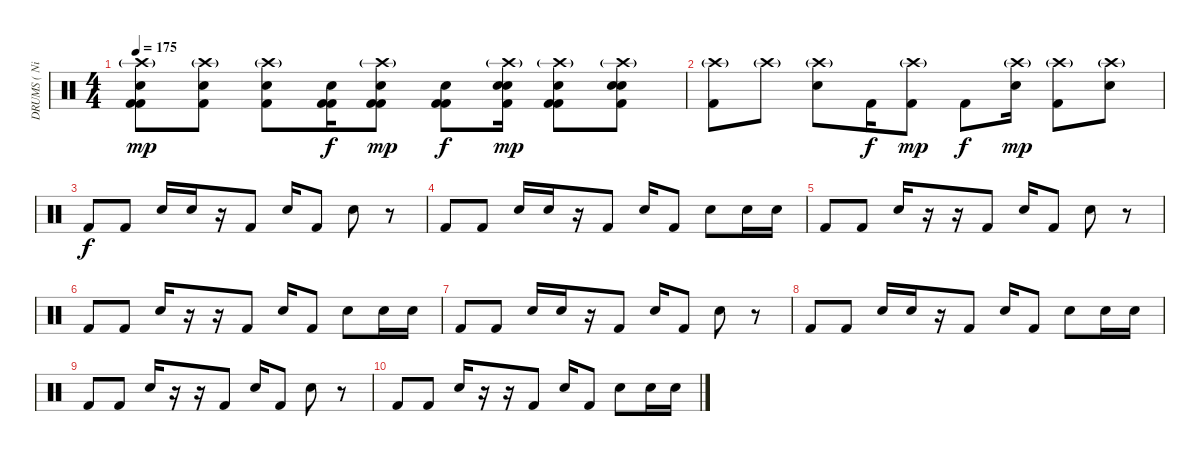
\track ("DRUMS ( Nick Oshiro )" "DRUMS ( Ni") {instrument percussion}
\staff {score}
\articulation defaults
\ts (4 4)
\tempo 175
\clef neutral
\ks c
("Kick (hit) 2" "Electric Snare (hit)" "Kick (hit) 2" "Crash high (hit)"{g}).8{dy mp} ("Kick (hit) 2" "Electric Snare (hit)" "Crash high (hit)"{g}).8 ("Kick (hit) 2" "Electric Snare (hit)" "Crash high (hit)"{g}).8 ("Kick (hit) 2" "Electric Snare (hit)" "Kick (hit) 2").16{dy f} ("Kick (hit) 2" "Electric Snare (hit)" "Kick (hit) 2" "Crash high (hit)"{g}).8{dy mp} ("Kick (hit) 2" "Electric Snare (hit)" "Kick (hit) 2").8{dy f} ("Kick (hit) 2" "Electric Snare (hit)" "Electric Snare (hit)" "Crash high (hit)"{g}).16{dy mp} ("Kick (hit) 2" "Electric Snare (hit)" "Kick (hit) 2" "Crash high (hit)"{g}).8 ("Kick (hit) 2" "Electric Snare (hit)" "Electric Snare (hit)" "Crash high (hit)"{g}).8 |
("Kick (hit) 2" "Crash high (hit)"{g}).8 "Crash high (hit)"{g}.8 ("Electric Snare (hit)" "Crash high (hit)"{g}).8 "Kick (hit) 2".16{dy f} ("Kick (hit) 2" "Crash high (hit)"{g}).8{dy mp} "Kick (hit) 2".8{dy f} ("Electric Snare (hit)" "Crash high (hit)"{g}).16{dy mp} ("Kick (hit) 2" "Crash high (hit)"{g}).8 ("Electric Snare (hit)" "Crash high (hit)"{g}).8 |
"Kick (hit) 2".8{dy f} "Kick (hit) 2".8 "Electric Snare (hit)".16 "Electric Snare (hit)".16 r.16 "Kick (hit) 2".8 "Electric Snare (hit)".16 "Kick (hit) 2".8 "Electric Snare (hit)".8 r.8 |
"Kick (hit) 2".8 "Kick (hit) 2".8 "Electric Snare (hit)".16 "Electric Snare (hit)".16 r.16 "Kick (hit) 2".8 "Electric Snare (hit)".16 "Kick (hit) 2".8 "Electric Snare (hit)".8 "Electric Snare (hit)".16 "Electric Snare (hit)".16 |
"Kick (hit) 2".8 "Kick (hit) 2".8 "Electric Snare (hit)".16 r.16 r.16 "Kick (hit) 2".8 "Electric Snare (hit)".16 "Kick (hit) 2".8 "Electric Snare (hit)".8 r.8 |
"Kick (hit) 2".8 "Kick (hit) 2".8 "Electric Snare (hit)".16 r.16 r.16 "Kick (hit) 2".8 "Electric Snare (hit)".16 "Kick (hit) 2".8 "Electric Snare (hit)".8 "Electric Snare (hit)".16 "Electric Snare (hit)".16 |
"Kick (hit) 2".8 "Kick (hit) 2".8 "Electric Snare (hit)".16 "Electric Snare (hit)".16 r.16 "Kick (hit) 2".8 "Electric Snare (hit)".16 "Kick (hit) 2".8 "Electric Snare (hit)".8 r.8 |
"Kick (hit) 2".8 "Kick (hit) 2".8 "Electric Snare (hit)".16 "Electric Snare (hit)".16 r.16 "Kick (hit) 2".8 "Electric Snare (hit)".16 "Kick (hit) 2".8 "Electric Snare (hit)".8 "Electric Snare (hit)".16 "Electric Snare (hit)".16 |
"Kick (hit) 2".8 "Kick (hit) 2".8 "Electric Snare (hit)".16 r.16 r.16 "Kick (hit) 2".8 "Electric Snare (hit)".16 "Kick (hit) 2".8 "Electric Snare (hit)".8 r.8 |
"Kick (hit) 2".8 "Kick (hit) 2".8 "Electric Snare (hit)".16 r.16 r.16 "Kick (hit) 2".8 "Electric Snare (hit)".16 "Kick (hit) 2".8 "Electric Snare (hit)".8 "Electric Snare (hit)".16 "Electric Snare (hit)".16
